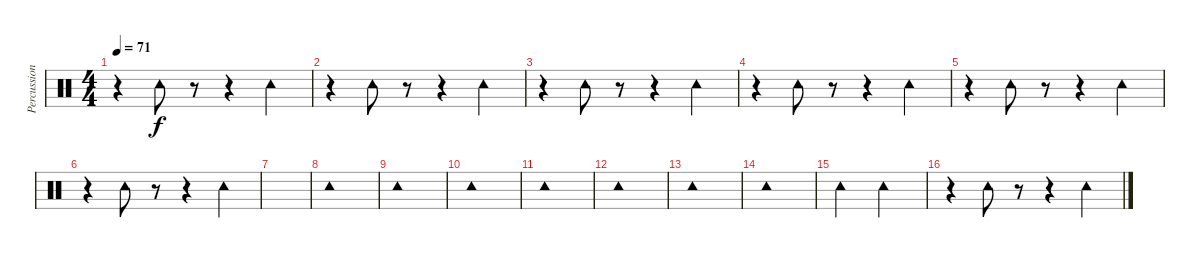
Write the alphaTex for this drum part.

\track ("Percussion" "Percussion") {instrument percussion}
\staff {score}
\articulation defaults
\ts (4 4)
\tempo 71
\clef neutral
\ks c
r.4{dy f} "Tambourine (hit)".8 r.8 r.4 "Tambourine (hit)".4 |
r.4 "Tambourine (hit)".8 r.8 r.4 "Tambourine (hit)".4 |
r.4 "Tambourine (hit)".8 r.8 r.4 "Tambourine (hit)".4 |
r.4 "Tambourine (hit)".8 r.8 r.4 "Tambourine (hit)".4 |
r.4 "Tambourine (hit)".8 r.8 r.4 "Tambourine (hit)".4 |
r.4 "Tambourine (hit)".8 r.8 r.4 "Tambourine (hit)".4 |
|
"Tambourine (hit)".1 |
"Tambourine (hit)".1 |
"Tambourine (hit)".1 |
"Tambourine (hit)".1 |
"Tambourine (hit)".1 |
"Tambourine (hit)".1 |
"Tambourine (hit)".1 |
"Tambourine (hit)".2 "Tambourine (hit)".2 |
r.4 "Tambourine (hit)".8 r.8 r.4 "Tambourine (hit)".4
